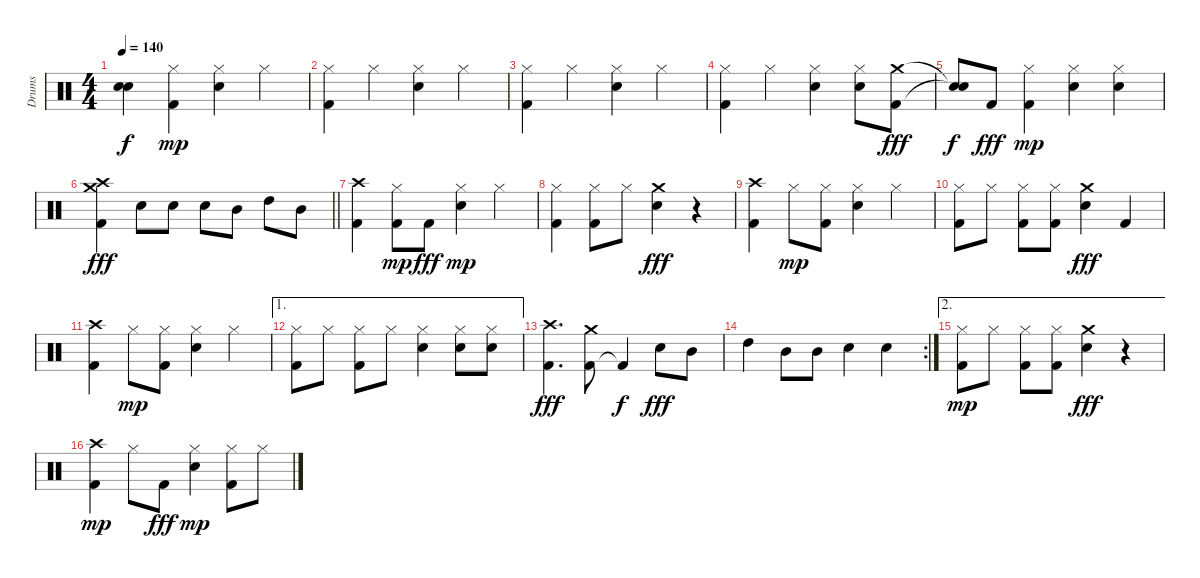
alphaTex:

\track ("Drums" "Drums") {instrument percussion}
\staff {score}
\articulation defaults
\ts (4 4)
\tempo 140
\clef neutral
\ks c
("Snare (hit)"{t} "Snare (hit)"{t}).4{dy f} ("Kick (hit) 2" "Hi-Hat (closed)").4{dy mp} ("Electric Snare (hit)" "Hi-Hat (closed)").4 "Hi-Hat (closed)".4 |
("Kick (hit) 2" "Hi-Hat (closed)").4 "Hi-Hat (closed)".4 ("Electric Snare (hit)" "Hi-Hat (closed)").4 "Hi-Hat (closed)".4 |
("Kick (hit) 2" "Hi-Hat (closed)").4 "Hi-Hat (closed)".4 ("Electric Snare (hit)" "Hi-Hat (closed)").4 "Hi-Hat (closed)".4 |
("Kick (hit) 2" "Hi-Hat (closed)").4 "Hi-Hat (closed)".4 ("Electric Snare (hit)" "Hi-Hat (closed)").4 ("Electric Snare (hit)" "Hi-Hat (closed)").8 ("Kick (hit) 2" "Crash medium (hit)").8{dy fff} |
("Snare (hit)"{t} "Snare (hit)"{t}).8{dy f} "Kick (hit) 2".8{dy fff} ("Kick (hit) 2" "Hi-Hat (closed)").4{dy mp} ("Electric Snare (hit)" "Hi-Hat (closed)").4 ("Electric Snare (hit)" "Hi-Hat (closed)").4 |
\barLineRight lightlight
("Kick (hit) 2" "Crash medium (hit)" "Crash high (hit)").4{dy fff} "Electric Snare (hit)".8 "Electric Snare (hit)".8 "Electric Snare (hit)".8 "Mid Tom (hit)".8 "High Tom (hit)".8 "Mid Tom (hit)".8 |
("Kick (hit) 2" "Crash high (hit)").4 ("Kick (hit) 2" "Hi-Hat (closed)").8{dy mp} "Kick (hit) 2".8{dy fff} ("Electric Snare (hit)" "Hi-Hat (closed)").4{dy mp} "Hi-Hat (closed)".4 |
("Kick (hit) 2" "Hi-Hat (closed)").4 ("Kick (hit) 2" "Hi-Hat (closed)").8 "Hi-Hat (closed)".8 ("Electric Snare (hit)" "Crash medium (hit)").4{dy fff} r.4 |
("Kick (hit) 2" "Crash high (hit)").4 "Hi-Hat (closed)".8{dy mp} ("Kick (hit) 2" "Hi-Hat (closed)").8 ("Electric Snare (hit)" "Hi-Hat (closed)").4 "Hi-Hat (closed)".4 |
("Kick (hit) 2" "Hi-Hat (closed)").8 "Hi-Hat (closed)".8 ("Kick (hit) 2" "Hi-Hat (closed)").8 ("Kick (hit) 2" "Hi-Hat (closed)").8 ("Electric Snare (hit)" "Crash medium (hit)").4{dy fff} "Kick (hit) 2".4 |
("Kick (hit) 2" "Crash high (hit)").4 "Hi-Hat (closed)".8{dy mp} ("Kick (hit) 2" "Hi-Hat (closed)").8 ("Electric Snare (hit)" "Hi-Hat (closed)").4 "Hi-Hat (closed)".4 |
\ae 1
("Kick (hit) 2" "Hi-Hat (closed)").8 "Hi-Hat (closed)".8 ("Kick (hit) 2" "Hi-Hat (closed)").8 "Hi-Hat (closed)".8 ("Electric Snare (hit)" "Hi-Hat (closed)").4 ("Electric Snare (hit)" "Hi-Hat (closed)").8 ("Electric Snare (hit)" "Hi-Hat (closed)").8 |
("Kick (hit) 2" "Crash high (hit)").4{d dy fff} ("Kick (hit) 2" "Crash medium (hit)").8 "Kick (hit) 2"{t}.4{dy f} "Electric Snare (hit)".8{dy fff} "Mid Tom (hit)".8 |
\rc 2 "High Tom (hit)".4 "Mid Tom (hit)".8 "Mid Tom (hit)".8 "Electric Snare (hit)".4 "Electric Snare (hit)".4
|
\ae 2
("Kick (hit) 2" "Hi-Hat (closed)").8{dy mp} "Hi-Hat (closed)".8 ("Kick (hit) 2" "Hi-Hat (closed)").8 ("Kick (hit) 2" "Hi-Hat (closed)").8 ("Electric Snare (hit)" "Crash medium (hit)").4{dy fff} r.4 |
("Kick (hit) 2" "Crash high (hit)").4{dy mp} "Hi-Hat (closed)".8 "Kick (hit) 2".8{dy fff} ("Electric Snare (hit)" "Hi-Hat (closed)").4{dy mp} ("Kick (hit) 2" "Hi-Hat (closed)").8 "Hi-Hat (closed)".8
